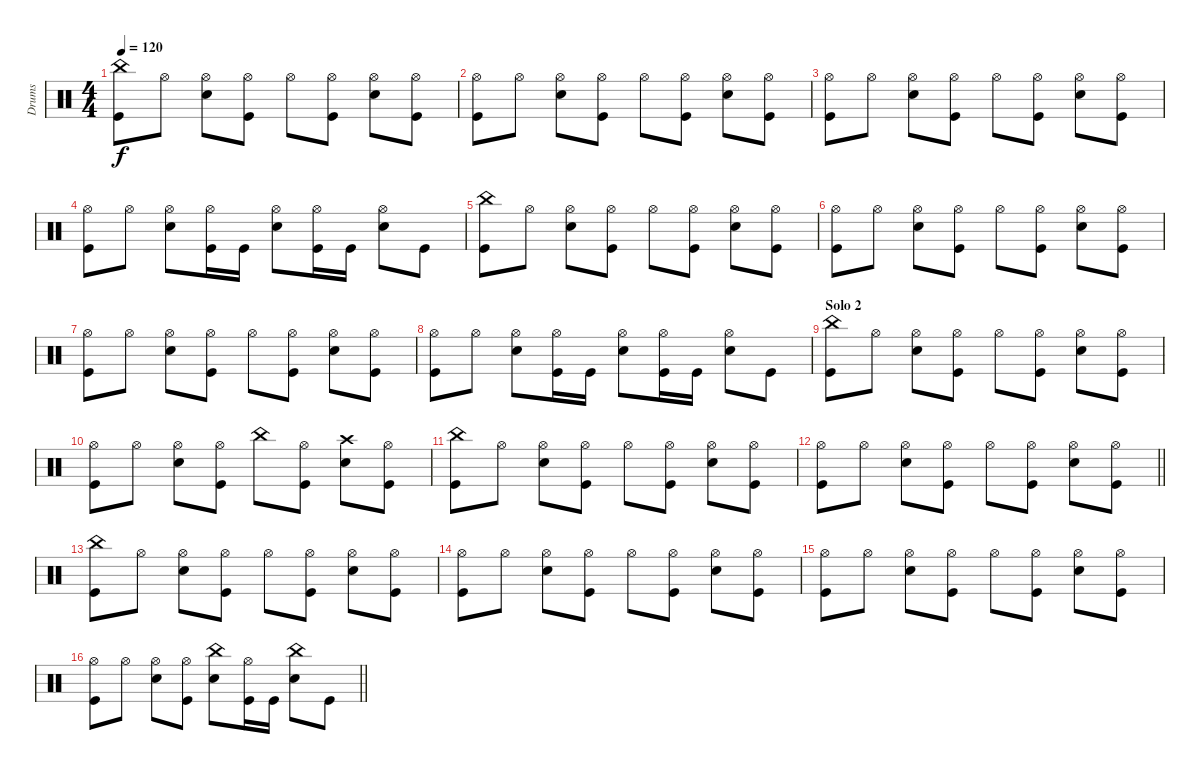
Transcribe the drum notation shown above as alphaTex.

\track ("Drums" "Drums") {instrument percussion}
\staff {score}
\articulation defaults
\ts (4 4)
\tempo 120
\clef neutral
\ks c
("China (hit)" "Kick (hit)").8{dy f} "Hi-Hat (open)".8 ("Hi-Hat (open)" "Electric Snare (hit)").8 ("Hi-Hat (open)" "Kick (hit)").8 "Hi-Hat (open)".8 ("Hi-Hat (open)" "Kick (hit)").8 ("Hi-Hat (open)" "Electric Snare (hit)").8 ("Hi-Hat (open)" "Kick (hit)").8 |
("Hi-Hat (open)" "Kick (hit)").8 "Hi-Hat (open)".8 ("Hi-Hat (open)" "Electric Snare (hit)").8 ("Hi-Hat (open)" "Kick (hit)").8 "Hi-Hat (open)".8 ("Hi-Hat (open)" "Kick (hit)").8 ("Hi-Hat (open)" "Electric Snare (hit)").8 ("Hi-Hat (open)" "Kick (hit)").8 |
("Hi-Hat (open)" "Kick (hit)").8 "Hi-Hat (open)".8 ("Hi-Hat (open)" "Electric Snare (hit)").8 ("Hi-Hat (open)" "Kick (hit)").8 "Hi-Hat (open)".8 ("Hi-Hat (open)" "Kick (hit)").8 ("Hi-Hat (open)" "Electric Snare (hit)").8 ("Hi-Hat (open)" "Kick (hit)").8 |
("Hi-Hat (open)" "Kick (hit)").8 "Hi-Hat (open)".8 ("Hi-Hat (open)" "Electric Snare (hit)").8 ("Hi-Hat (open)" "Kick (hit)").16 "Kick (hit)".16 ("Hi-Hat (open)" "Electric Snare (hit)").8 ("Hi-Hat (open)" "Kick (hit)").16 "Kick (hit)".16 ("Hi-Hat (open)" "Electric Snare (hit)").8 "Kick (hit)".8 |
("China (hit)" "Kick (hit)").8 "Hi-Hat (open)".8 ("Hi-Hat (open)" "Electric Snare (hit)").8 ("Hi-Hat (open)" "Kick (hit)").8 "Hi-Hat (open)".8 ("Hi-Hat (open)" "Kick (hit)").8 ("Hi-Hat (open)" "Electric Snare (hit)").8 ("Hi-Hat (open)" "Kick (hit)").8 |
("Hi-Hat (open)" "Kick (hit)").8 "Hi-Hat (open)".8 ("Hi-Hat (open)" "Electric Snare (hit)").8 ("Hi-Hat (open)" "Kick (hit)").8 "Hi-Hat (open)".8 ("Hi-Hat (open)" "Kick (hit)").8 ("Hi-Hat (open)" "Electric Snare (hit)").8 ("Hi-Hat (open)" "Kick (hit)").8 |
("Hi-Hat (open)" "Kick (hit)").8 "Hi-Hat (open)".8 ("Hi-Hat (open)" "Electric Snare (hit)").8 ("Hi-Hat (open)" "Kick (hit)").8 "Hi-Hat (open)".8 ("Hi-Hat (open)" "Kick (hit)").8 ("Hi-Hat (open)" "Electric Snare (hit)").8 ("Hi-Hat (open)" "Kick (hit)").8 |
("Hi-Hat (open)" "Kick (hit)").8 "Hi-Hat (open)".8 ("Hi-Hat (open)" "Electric Snare (hit)").8 ("Hi-Hat (open)" "Kick (hit)").16 "Kick (hit)".16 ("Hi-Hat (open)" "Electric Snare (hit)").8 ("Hi-Hat (open)" "Kick (hit)").16 "Kick (hit)".16 ("Hi-Hat (open)" "Electric Snare (hit)").8 "Kick (hit)".8 |
\section ("" "Solo 2")
("China (hit)" "Kick (hit)").8 "Hi-Hat (open)".8 ("Hi-Hat (open)" "Electric Snare (hit)").8 ("Hi-Hat (open)" "Kick (hit)").8 "Hi-Hat (open)".8 ("Hi-Hat (open)" "Kick (hit)").8 ("Hi-Hat (open)" "Electric Snare (hit)").8 ("Hi-Hat (open)" "Kick (hit)").8 |
("Hi-Hat (open)" "Kick (hit)").8 "Hi-Hat (open)".8 ("Hi-Hat (open)" "Electric Snare (hit)").8 ("Hi-Hat (open)" "Kick (hit)").8 "China (hit)".8 ("Hi-Hat (open)" "Kick (hit)").8 ("Crash high (hit)" "Electric Snare (hit)").8 ("Hi-Hat (open)" "Kick (hit)").8 |
("China (hit)" "Kick (hit)").8 "Hi-Hat (open)".8 ("Hi-Hat (open)" "Electric Snare (hit)").8 ("Hi-Hat (open)" "Kick (hit)").8 "Hi-Hat (open)".8 ("Hi-Hat (open)" "Kick (hit)").8 ("Hi-Hat (open)" "Electric Snare (hit)").8 ("Hi-Hat (open)" "Kick (hit)").8 |
\barLineRight lightlight
("Hi-Hat (open)" "Kick (hit)").8 "Hi-Hat (open)".8 ("Hi-Hat (open)" "Electric Snare (hit)").8 ("Hi-Hat (open)" "Kick (hit)").8 "Hi-Hat (open)".8 ("Hi-Hat (open)" "Kick (hit)").8 ("Hi-Hat (open)" "Electric Snare (hit)").8 ("Hi-Hat (open)" "Kick (hit)").8 |
("China (hit)" "Kick (hit)").8 "Hi-Hat (open)".8 ("Hi-Hat (open)" "Electric Snare (hit)").8 ("Hi-Hat (open)" "Kick (hit)").8 "Hi-Hat (open)".8 ("Hi-Hat (open)" "Kick (hit)").8 ("Hi-Hat (open)" "Electric Snare (hit)").8 ("Hi-Hat (open)" "Kick (hit)").8 |
("Hi-Hat (open)" "Kick (hit)").8 "Hi-Hat (open)".8 ("Hi-Hat (open)" "Electric Snare (hit)").8 ("Hi-Hat (open)" "Kick (hit)").8 "Hi-Hat (open)".8 ("Hi-Hat (open)" "Kick (hit)").8 ("Hi-Hat (open)" "Electric Snare (hit)").8 ("Hi-Hat (open)" "Kick (hit)").8 |
("Hi-Hat (open)" "Kick (hit)").8 "Hi-Hat (open)".8 ("Hi-Hat (open)" "Electric Snare (hit)").8 ("Hi-Hat (open)" "Kick (hit)").8 "Hi-Hat (open)".8 ("Hi-Hat (open)" "Kick (hit)").8 ("Hi-Hat (open)" "Electric Snare (hit)").8 ("Hi-Hat (open)" "Kick (hit)").8 |
\barLineRight lightlight
("Hi-Hat (open)" "Kick (hit)").8 "Hi-Hat (open)".8 ("Hi-Hat (open)" "Electric Snare (hit)").8 ("Hi-Hat (open)" "Kick (hit)").8 ("China (hit)" "Electric Snare (hit)").8 ("Hi-Hat (open)" "Kick (hit)").16 "Kick (hit)".16 ("China (hit)" "Electric Snare (hit)").8 "Kick (hit)".8
